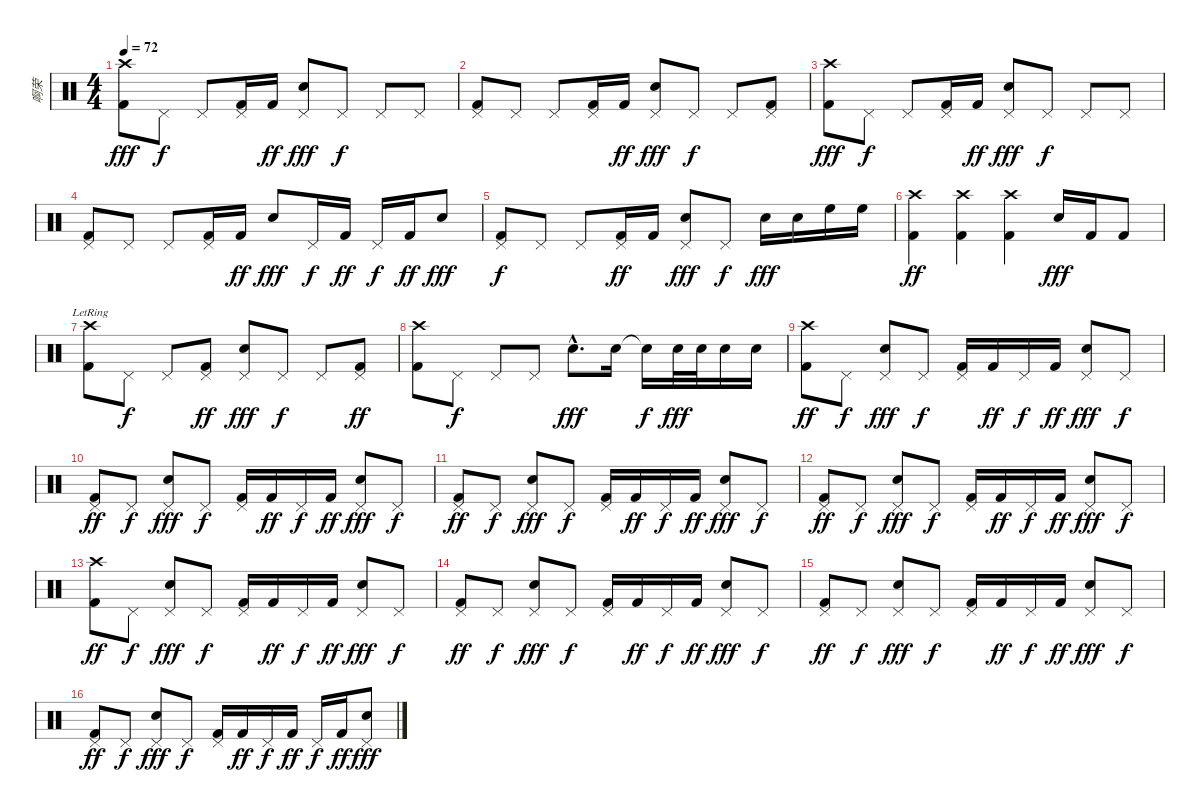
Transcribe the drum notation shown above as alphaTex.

\track ("啊荣" "啊荣") {instrument percussion}
\staff {score}
\articulation defaults
\ts (4 4)
\tempo 72
\clef neutral
\ks c
("Crash high (hit)" "Kick (hit) 2").8{dy fff} "Pedal Hi-Hat (hit)".8{dy f} "Pedal Hi-Hat (hit)".8 ("Pedal Hi-Hat (hit)" "Kick (hit) 2").16 "Kick (hit) 2".16{dy ff} ("Pedal Hi-Hat (hit)" "Electric Snare (hit)").8{dy fff} "Pedal Hi-Hat (hit)".8{dy f} "Pedal Hi-Hat (hit)".8 "Pedal Hi-Hat (hit)".8 |
("Pedal Hi-Hat (hit)" "Kick (hit) 2").8 "Pedal Hi-Hat (hit)".8 "Pedal Hi-Hat (hit)".8 ("Pedal Hi-Hat (hit)" "Kick (hit) 2").16 "Kick (hit) 2".16{dy ff} ("Pedal Hi-Hat (hit)" "Electric Snare (hit)").8{dy fff} "Pedal Hi-Hat (hit)".8{dy f} "Pedal Hi-Hat (hit)".8 ("Pedal Hi-Hat (hit)" "Kick (hit) 2").8 |
("Crash high (hit)" "Kick (hit) 2").8{dy fff} "Pedal Hi-Hat (hit)".8{dy f} "Pedal Hi-Hat (hit)".8 ("Pedal Hi-Hat (hit)" "Kick (hit) 2").16 "Kick (hit) 2".16{dy ff} ("Pedal Hi-Hat (hit)" "Electric Snare (hit)").8{dy fff} "Pedal Hi-Hat (hit)".8{dy f} "Pedal Hi-Hat (hit)".8 "Pedal Hi-Hat (hit)".8 |
("Pedal Hi-Hat (hit)" "Kick (hit) 2").8 "Pedal Hi-Hat (hit)".8 "Pedal Hi-Hat (hit)".8 ("Pedal Hi-Hat (hit)" "Kick (hit) 2").16 "Kick (hit) 2".16{dy ff} "Electric Snare (hit)".8{dy fff} "Pedal Hi-Hat (hit)".16{dy f} "Kick (hit) 2".16{dy ff} "Pedal Hi-Hat (hit)".16{dy f} "Kick (hit) 2".16{dy ff} "Electric Snare (hit)".8{dy fff} |
("Pedal Hi-Hat (hit)" "Kick (hit) 2").8{dy f} "Pedal Hi-Hat (hit)".8 "Pedal Hi-Hat (hit)".8 ("Pedal Hi-Hat (hit)" "Kick (hit) 2").16{dy ff} "Kick (hit) 2".16 ("Pedal Hi-Hat (hit)" "Electric Snare (hit)").8{dy fff} "Pedal Hi-Hat (hit)".8{dy f} "Electric Snare (hit)".16{dy fff} "Electric Snare (hit)".16 "High Floor Tom (hit)".16 "High Floor Tom (hit)".16 |
("Crash high (hit)" "Kick (hit) 2").4{dy ff} ("Crash high (hit)" "Kick (hit) 2").4 ("Crash high (hit)" "Kick (hit) 2").4 "Electric Snare (hit)".16{dy fff} "Kick (hit) 2".16 "Kick (hit) 2".8 |
("Crash high (hit)"{lr} "Kick (hit) 2").8 "Pedal Hi-Hat (hit)".8{dy f} "Pedal Hi-Hat (hit)".8 ("Pedal Hi-Hat (hit)" "Kick (hit) 2").8{dy ff} ("Pedal Hi-Hat (hit)" "Electric Snare (hit)").8{dy fff} "Pedal Hi-Hat (hit)".8{dy f} "Pedal Hi-Hat (hit)".8 ("Pedal Hi-Hat (hit)" "Kick (hit) 2").8{dy ff} |
("Crash high (hit)" "Kick (hit) 2").8 "Pedal Hi-Hat (hit)".8{dy f} "Pedal Hi-Hat (hit)".8 "Pedal Hi-Hat (hit)".8 "Electric Snare (hit)"{hac}.8{d dy fff} "Electric Snare (hit)".16 "Snare (hit)"{t}.16{dy f} "Electric Snare (hit)".32{dy fff} "Electric Snare (hit)".32 "Electric Snare (hit)".16 "Electric Snare (hit)".16 |
("Crash high (hit)" "Kick (hit) 2").8{dy ff} "Pedal Hi-Hat (hit)".8{dy f} ("Pedal Hi-Hat (hit)" "Electric Snare (hit)").8{dy fff} "Pedal Hi-Hat (hit)".8{dy f} ("Pedal Hi-Hat (hit)" "Kick (hit) 2").16 "Kick (hit) 2".16{dy ff} "Pedal Hi-Hat (hit)".16{dy f} "Kick (hit) 2".16{dy ff} ("Pedal Hi-Hat (hit)" "Electric Snare (hit)").8{dy fff} "Pedal Hi-Hat (hit)".8{dy f} |
("Pedal Hi-Hat (hit)" "Kick (hit) 2").8{dy ff} "Pedal Hi-Hat (hit)".8{dy f} ("Pedal Hi-Hat (hit)" "Electric Snare (hit)").8{dy fff} "Pedal Hi-Hat (hit)".8{dy f} ("Pedal Hi-Hat (hit)" "Kick (hit) 2").16 "Kick (hit) 2".16{dy ff} "Pedal Hi-Hat (hit)".16{dy f} "Kick (hit) 2".16{dy ff} ("Pedal Hi-Hat (hit)" "Electric Snare (hit)").8{dy fff} "Pedal Hi-Hat (hit)".8{dy f} |
("Pedal Hi-Hat (hit)" "Kick (hit) 2").8{dy ff} "Pedal Hi-Hat (hit)".8{dy f} ("Pedal Hi-Hat (hit)" "Electric Snare (hit)").8{dy fff} "Pedal Hi-Hat (hit)".8{dy f} ("Pedal Hi-Hat (hit)" "Kick (hit) 2").16 "Kick (hit) 2".16{dy ff} "Pedal Hi-Hat (hit)".16{dy f} "Kick (hit) 2".16{dy ff} ("Pedal Hi-Hat (hit)" "Electric Snare (hit)").8{dy fff} "Pedal Hi-Hat (hit)".8{dy f} |
("Pedal Hi-Hat (hit)" "Kick (hit) 2").8{dy ff} "Pedal Hi-Hat (hit)".8{dy f} ("Pedal Hi-Hat (hit)" "Electric Snare (hit)").8{dy fff} "Pedal Hi-Hat (hit)".8{dy f} ("Pedal Hi-Hat (hit)" "Kick (hit) 2").16 "Kick (hit) 2".16{dy ff} "Pedal Hi-Hat (hit)".16{dy f} "Kick (hit) 2".16{dy ff} ("Pedal Hi-Hat (hit)" "Electric Snare (hit)").8{dy fff} "Pedal Hi-Hat (hit)".8{dy f} |
("Crash high (hit)" "Kick (hit) 2").8{dy ff} "Pedal Hi-Hat (hit)".8{dy f} ("Pedal Hi-Hat (hit)" "Electric Snare (hit)").8{dy fff} "Pedal Hi-Hat (hit)".8{dy f} ("Pedal Hi-Hat (hit)" "Kick (hit) 2").16 "Kick (hit) 2".16{dy ff} "Pedal Hi-Hat (hit)".16{dy f} "Kick (hit) 2".16{dy ff} ("Pedal Hi-Hat (hit)" "Electric Snare (hit)").8{dy fff} "Pedal Hi-Hat (hit)".8{dy f} |
("Pedal Hi-Hat (hit)" "Kick (hit) 2").8{dy ff} "Pedal Hi-Hat (hit)".8{dy f} ("Pedal Hi-Hat (hit)" "Electric Snare (hit)").8{dy fff} "Pedal Hi-Hat (hit)".8{dy f} ("Pedal Hi-Hat (hit)" "Kick (hit) 2").16 "Kick (hit) 2".16{dy ff} "Pedal Hi-Hat (hit)".16{dy f} "Kick (hit) 2".16{dy ff} ("Pedal Hi-Hat (hit)" "Electric Snare (hit)").8{dy fff} "Pedal Hi-Hat (hit)".8{dy f} |
("Pedal Hi-Hat (hit)" "Kick (hit) 2").8{dy ff} "Pedal Hi-Hat (hit)".8{dy f} ("Pedal Hi-Hat (hit)" "Electric Snare (hit)").8{dy fff} "Pedal Hi-Hat (hit)".8{dy f} ("Pedal Hi-Hat (hit)" "Kick (hit) 2").16 "Kick (hit) 2".16{dy ff} "Pedal Hi-Hat (hit)".16{dy f} "Kick (hit) 2".16{dy ff} ("Pedal Hi-Hat (hit)" "Electric Snare (hit)").8{dy fff} "Pedal Hi-Hat (hit)".8{dy f} |
("Pedal Hi-Hat (hit)" "Kick (hit) 2").8{dy ff} "Pedal Hi-Hat (hit)".8{dy f} ("Pedal Hi-Hat (hit)" "Electric Snare (hit)").8{dy fff} "Pedal Hi-Hat (hit)".8{dy f} ("Pedal Hi-Hat (hit)" "Kick (hit) 2").16 "Kick (hit) 2".16{dy ff} "Pedal Hi-Hat (hit)".16{dy f} "Kick (hit) 2".16{dy ff} "Pedal Hi-Hat (hit)".16{dy f} "Kick (hit) 2".16{dy ff} ("Pedal Hi-Hat (hit)" "Electric Snare (hit)").8{dy fff}
